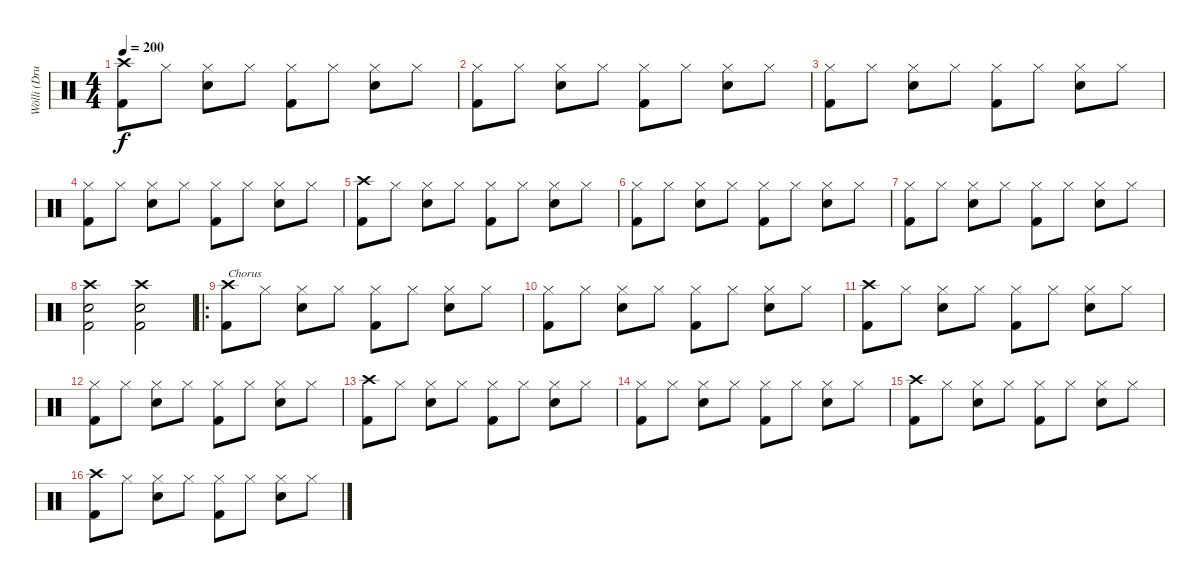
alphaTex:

\track ("Wölli (Drums)" "Wölli (Dru") {instrument percussion}
\staff {score}
\articulation defaults
\ts (4 4)
\tempo 200
\clef neutral
\ks c
("Crash high (hit)" "Kick (hit) 2").8{dy f} "Hi-Hat (closed)".8 ("Hi-Hat (closed)" "Snare (hit) 2").8 "Hi-Hat (closed)".8 ("Hi-Hat (closed)" "Kick (hit) 2").8 "Hi-Hat (closed)".8 ("Hi-Hat (closed)" "Snare (hit) 2").8 "Hi-Hat (closed)".8 |
("Hi-Hat (closed)" "Kick (hit) 2").8 "Hi-Hat (closed)".8 ("Hi-Hat (closed)" "Snare (hit) 2").8 "Hi-Hat (closed)".8 ("Hi-Hat (closed)" "Kick (hit) 2").8 "Hi-Hat (closed)".8 ("Hi-Hat (closed)" "Snare (hit) 2").8 "Hi-Hat (closed)".8 |
("Hi-Hat (closed)" "Kick (hit) 2").8 "Hi-Hat (closed)".8 ("Hi-Hat (closed)" "Snare (hit) 2").8 "Hi-Hat (closed)".8 ("Hi-Hat (closed)" "Kick (hit) 2").8 "Hi-Hat (closed)".8 ("Hi-Hat (closed)" "Snare (hit) 2").8 "Hi-Hat (closed)".8 |
("Hi-Hat (closed)" "Kick (hit) 2").8 "Hi-Hat (closed)".8 ("Hi-Hat (closed)" "Snare (hit) 2").8 "Hi-Hat (closed)".8 ("Hi-Hat (closed)" "Kick (hit) 2").8 "Hi-Hat (closed)".8 ("Hi-Hat (closed)" "Snare (hit) 2").8 "Hi-Hat (closed)".8 |
("Crash high (hit)" "Kick (hit) 2").8 "Hi-Hat (closed)".8 ("Hi-Hat (closed)" "Snare (hit) 2").8 "Hi-Hat (closed)".8 ("Hi-Hat (closed)" "Kick (hit) 2").8 "Hi-Hat (closed)".8 ("Hi-Hat (closed)" "Snare (hit) 2").8 "Hi-Hat (closed)".8 |
("Hi-Hat (closed)" "Kick (hit) 2").8 "Hi-Hat (closed)".8 ("Hi-Hat (closed)" "Snare (hit) 2").8 "Hi-Hat (closed)".8 ("Hi-Hat (closed)" "Kick (hit) 2").8 "Hi-Hat (closed)".8 ("Hi-Hat (closed)" "Snare (hit) 2").8 "Hi-Hat (closed)".8 |
("Hi-Hat (closed)" "Kick (hit) 2").8 "Hi-Hat (closed)".8 ("Hi-Hat (closed)" "Snare (hit) 2").8 "Hi-Hat (closed)".8 ("Hi-Hat (closed)" "Kick (hit) 2").8 "Hi-Hat (closed)".8 ("Hi-Hat (closed)" "Snare (hit) 2").8 "Hi-Hat (closed)".8 |
("Crash high (hit)" "Snare (hit) 2" "Kick (hit) 2").2 ("Crash high (hit)" "Snare (hit) 2" "Kick (hit) 2").2 |
\ro
("Crash high (hit)" "Kick (hit) 2").8{txt "Chorus"} "Hi-Hat (closed)".8 ("Hi-Hat (closed)" "Snare (hit) 2").8 "Hi-Hat (closed)".8 ("Hi-Hat (closed)" "Kick (hit) 2").8 "Hi-Hat (closed)".8 ("Hi-Hat (closed)" "Snare (hit) 2").8 "Hi-Hat (closed)".8 |
("Hi-Hat (closed)" "Kick (hit) 2").8 "Hi-Hat (closed)".8 ("Hi-Hat (closed)" "Snare (hit) 2").8 "Hi-Hat (closed)".8 ("Hi-Hat (closed)" "Kick (hit) 2").8 "Hi-Hat (closed)".8 ("Hi-Hat (closed)" "Snare (hit) 2").8 "Hi-Hat (closed)".8 |
("Crash high (hit)" "Kick (hit) 2").8 "Hi-Hat (closed)".8 ("Hi-Hat (closed)" "Snare (hit) 2").8 "Hi-Hat (closed)".8 ("Hi-Hat (closed)" "Kick (hit) 2").8 "Hi-Hat (closed)".8 ("Hi-Hat (closed)" "Snare (hit) 2").8 "Hi-Hat (closed)".8 |
("Hi-Hat (closed)" "Kick (hit) 2").8 "Hi-Hat (closed)".8 ("Hi-Hat (closed)" "Snare (hit) 2").8 "Hi-Hat (closed)".8 ("Hi-Hat (closed)" "Kick (hit) 2").8 "Hi-Hat (closed)".8 ("Hi-Hat (closed)" "Snare (hit) 2").8 "Hi-Hat (closed)".8 |
("Crash high (hit)" "Kick (hit) 2").8 "Hi-Hat (closed)".8 ("Hi-Hat (closed)" "Snare (hit) 2").8 "Hi-Hat (closed)".8 ("Hi-Hat (closed)" "Kick (hit) 2").8 "Hi-Hat (closed)".8 ("Hi-Hat (closed)" "Snare (hit) 2").8 "Hi-Hat (closed)".8 |
("Hi-Hat (closed)" "Kick (hit) 2").8 "Hi-Hat (closed)".8 ("Hi-Hat (closed)" "Snare (hit) 2").8 "Hi-Hat (closed)".8 ("Hi-Hat (closed)" "Kick (hit) 2").8 "Hi-Hat (closed)".8 ("Hi-Hat (closed)" "Snare (hit) 2").8 "Hi-Hat (closed)".8 |
("Crash high (hit)" "Kick (hit) 2").8 "Hi-Hat (closed)".8 ("Hi-Hat (closed)" "Snare (hit) 2").8 "Hi-Hat (closed)".8 ("Hi-Hat (closed)" "Kick (hit) 2").8 "Hi-Hat (closed)".8 ("Hi-Hat (closed)" "Snare (hit) 2").8 "Hi-Hat (closed)".8 |
("Crash high (hit)" "Kick (hit) 2").8 "Hi-Hat (closed)".8 ("Hi-Hat (closed)" "Snare (hit) 2").8 "Hi-Hat (closed)".8 ("Hi-Hat (closed)" "Kick (hit) 2").8 "Hi-Hat (closed)".8 ("Hi-Hat (closed)" "Snare (hit) 2").8 "Hi-Hat (closed)".8
